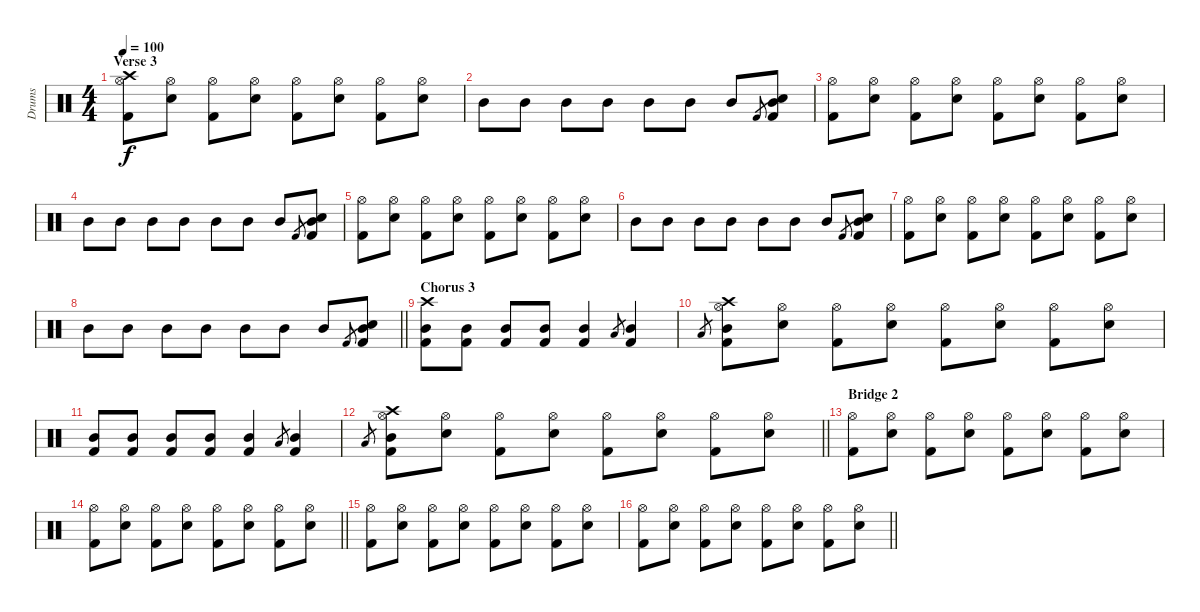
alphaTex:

\track ("Drums" "Drums") {instrument percussion}
\staff {score}
\articulation defaults
\ts (4 4)
\section ("" "Verse 3")
\tempo 100
\clef neutral
\ks c
("Crash high (hit)" "Hi-Hat (open)" "Kick (hit) 2").8{dy f} ("Hi-Hat (open)" "Snare (hit) 2").8 ("Hi-Hat (open)" "Kick (hit) 2").8 ("Hi-Hat (open)" "Snare (hit) 2").8 ("Hi-Hat (open)" "Kick (hit) 2").8 ("Hi-Hat (open)" "Snare (hit) 2").8 ("Hi-Hat (open)" "Kick (hit) 2").8 ("Hi-Hat (open)" "Snare (hit) 2").8 |
"Mid Tom (hit)".8 "Mid Tom (hit)".8 "Mid Tom (hit)".8 "Mid Tom (hit)".8 "Mid Tom (hit)".8 "Mid Tom (hit)".8 "Mid Tom (hit)".8 "Kick (hit) 2".8{gr} ("Mid Tom (hit)" "Snare (hit) 2" "Kick (hit) 2").8 |
("Hi-Hat (open)" "Kick (hit) 2").8 ("Hi-Hat (open)" "Snare (hit) 2").8 ("Hi-Hat (open)" "Kick (hit) 2").8 ("Hi-Hat (open)" "Snare (hit) 2").8 ("Hi-Hat (open)" "Kick (hit) 2").8 ("Hi-Hat (open)" "Snare (hit) 2").8 ("Hi-Hat (open)" "Kick (hit) 2").8 ("Hi-Hat (open)" "Snare (hit) 2").8 |
"Mid Tom (hit)".8 "Mid Tom (hit)".8 "Mid Tom (hit)".8 "Mid Tom (hit)".8 "Mid Tom (hit)".8 "Mid Tom (hit)".8 "Mid Tom (hit)".8 "Kick (hit) 2".8{gr} ("Mid Tom (hit)" "Snare (hit) 2" "Kick (hit) 2").8 |
("Hi-Hat (open)" "Kick (hit) 2").8 ("Hi-Hat (open)" "Snare (hit) 2").8 ("Hi-Hat (open)" "Kick (hit) 2").8 ("Hi-Hat (open)" "Snare (hit) 2").8 ("Hi-Hat (open)" "Kick (hit) 2").8 ("Hi-Hat (open)" "Snare (hit) 2").8 ("Hi-Hat (open)" "Kick (hit) 2").8 ("Hi-Hat (open)" "Snare (hit) 2").8 |
"Mid Tom (hit)".8 "Mid Tom (hit)".8 "Mid Tom (hit)".8 "Mid Tom (hit)".8 "Mid Tom (hit)".8 "Mid Tom (hit)".8 "Mid Tom (hit)".8 "Kick (hit) 2".8{gr} ("Mid Tom (hit)" "Snare (hit) 2" "Kick (hit) 2").8 |
("Hi-Hat (open)" "Kick (hit) 2").8 ("Hi-Hat (open)" "Snare (hit) 2").8 ("Hi-Hat (open)" "Kick (hit) 2").8 ("Hi-Hat (open)" "Snare (hit) 2").8 ("Hi-Hat (open)" "Kick (hit) 2").8 ("Hi-Hat (open)" "Snare (hit) 2").8 ("Hi-Hat (open)" "Kick (hit) 2").8 ("Hi-Hat (open)" "Snare (hit) 2").8 |
\barLineRight lightlight "Mid Tom (hit)".8 "Mid Tom (hit)".8 "Mid Tom (hit)".8 "Mid Tom (hit)".8 "Mid Tom (hit)".8 "Mid Tom (hit)".8 "Mid Tom (hit)".8 "Kick (hit) 2".8{gr}
("Mid Tom (hit)" "Snare (hit) 2" "Kick (hit) 2").8 |
\section ("" "Chorus 3")
("Crash high (hit)" "Mid Tom (hit)" "Kick (hit) 2").8 ("Mid Tom (hit)" "Kick (hit) 2").8 ("Mid Tom (hit)" "Kick (hit) 2").8 ("Mid Tom (hit)" "Kick (hit) 2").8 ("Mid Tom (hit)" "Kick (hit) 2").4 "Low Floor Tom (hit)".8{gr} ("Mid Tom (hit)" "Kick (hit) 2").4 |
"Low Floor Tom (hit)".8{gr} ("Crash high (hit)" "Hi-Hat (open)" "Mid Tom (hit)" "Kick (hit) 2").8 ("Hi-Hat (open)" "Snare (hit) 2").8 ("Hi-Hat (open)" "Kick (hit) 2").8 ("Hi-Hat (open)" "Snare (hit) 2").8 ("Hi-Hat (open)" "Kick (hit) 2").8 ("Hi-Hat (open)" "Snare (hit) 2").8 ("Hi-Hat (open)" "Kick (hit) 2").8 ("Hi-Hat (open)" "Snare (hit) 2").8 |
("Mid Tom (hit)" "Kick (hit) 2").8 ("Mid Tom (hit)" "Kick (hit) 2").8 ("Mid Tom (hit)" "Kick (hit) 2").8 ("Mid Tom (hit)" "Kick (hit) 2").8 ("Mid Tom (hit)" "Kick (hit) 2").4 "Low Floor Tom (hit)".8{gr} ("Mid Tom (hit)" "Kick (hit) 2").4 |
\barLineRight lightlight "Low Floor Tom (hit)".8{gr}
("Crash high (hit)" "Hi-Hat (open)" "Mid Tom (hit)" "Kick (hit) 2").8 ("Hi-Hat (open)" "Snare (hit) 2").8 ("Hi-Hat (open)" "Kick (hit) 2").8 ("Hi-Hat (open)" "Snare (hit) 2").8 ("Hi-Hat (open)" "Kick (hit) 2").8 ("Hi-Hat (open)" "Snare (hit) 2").8 ("Hi-Hat (open)" "Kick (hit) 2").8 ("Hi-Hat (open)" "Snare (hit) 2").8 |
\section ("" "Bridge 2")
("Hi-Hat (open)" "Kick (hit) 2").8 ("Hi-Hat (open)" "Snare (hit) 2").8 ("Hi-Hat (open)" "Kick (hit) 2").8 ("Hi-Hat (open)" "Snare (hit) 2").8 ("Hi-Hat (open)" "Kick (hit) 2").8 ("Hi-Hat (open)" "Snare (hit) 2").8 ("Hi-Hat (open)" "Kick (hit) 2").8 ("Hi-Hat (open)" "Snare (hit) 2").8 |
\barLineRight lightlight
("Hi-Hat (open)" "Kick (hit) 2").8 ("Hi-Hat (open)" "Snare (hit) 2").8 ("Hi-Hat (open)" "Kick (hit) 2").8 ("Hi-Hat (open)" "Snare (hit) 2").8 ("Hi-Hat (open)" "Kick (hit) 2").8 ("Hi-Hat (open)" "Snare (hit) 2").8 ("Hi-Hat (open)" "Kick (hit) 2").8 ("Hi-Hat (open)" "Snare (hit) 2").8 |
("Hi-Hat (open)" "Kick (hit) 2").8 ("Hi-Hat (open)" "Snare (hit) 2").8 ("Hi-Hat (open)" "Kick (hit) 2").8 ("Hi-Hat (open)" "Snare (hit) 2").8 ("Hi-Hat (open)" "Kick (hit) 2").8 ("Hi-Hat (open)" "Snare (hit) 2").8 ("Hi-Hat (open)" "Kick (hit) 2").8 ("Hi-Hat (open)" "Snare (hit) 2").8 |
\barLineRight lightlight
("Hi-Hat (open)" "Kick (hit) 2").8 ("Hi-Hat (open)" "Snare (hit) 2").8 ("Hi-Hat (open)" "Kick (hit) 2").8 ("Hi-Hat (open)" "Snare (hit) 2").8 ("Hi-Hat (open)" "Kick (hit) 2").8 ("Hi-Hat (open)" "Snare (hit) 2").8 ("Hi-Hat (open)" "Kick (hit) 2").8 ("Hi-Hat (open)" "Snare (hit) 2").8
